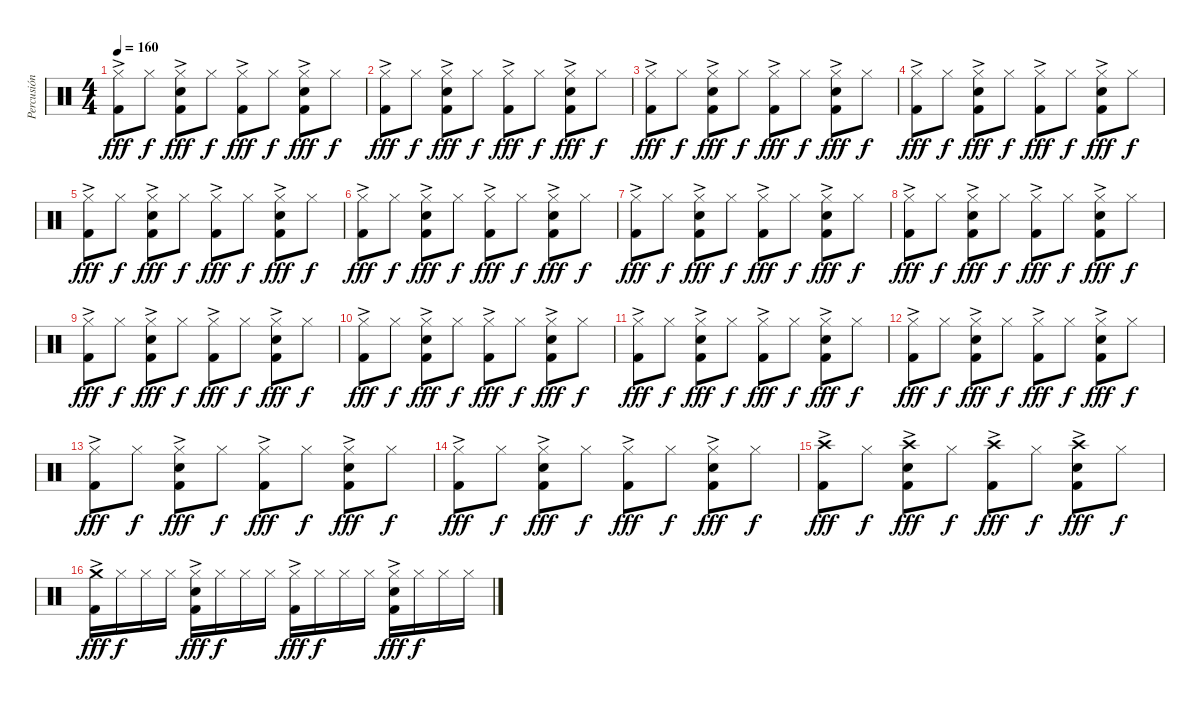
\track ("Percusión" "Percusión") {instrument percussion}
\staff {score}
\articulation defaults
\ts (4 4)
\tempo 160
\clef neutral
\ks c
("Hi-Hat (closed)" "Kick (hit) 2"{ac}).8{dy fff} "Hi-Hat (closed)".8{dy f} ("Hi-Hat (closed)" "Electric Snare (hit)" "Kick (hit) 2"{ac}).8{dy fff} "Hi-Hat (closed)".8{dy f} ("Hi-Hat (closed)" "Kick (hit) 2"{ac}).8{dy fff} "Hi-Hat (closed)".8{dy f} ("Hi-Hat (closed)" "Electric Snare (hit)" "Kick (hit) 2"{ac}).8{dy fff} "Hi-Hat (closed)".8{dy f} |
("Hi-Hat (closed)" "Kick (hit) 2"{ac}).8{dy fff} "Hi-Hat (closed)".8{dy f} ("Hi-Hat (closed)" "Electric Snare (hit)" "Kick (hit) 2"{ac}).8{dy fff} "Hi-Hat (closed)".8{dy f} ("Hi-Hat (closed)" "Kick (hit) 2"{ac}).8{dy fff} "Hi-Hat (closed)".8{dy f} ("Hi-Hat (closed)" "Electric Snare (hit)" "Kick (hit) 2"{ac}).8{dy fff} "Hi-Hat (closed)".8{dy f} |
("Hi-Hat (closed)" "Kick (hit) 2"{ac}).8{dy fff} "Hi-Hat (closed)".8{dy f} ("Hi-Hat (closed)" "Electric Snare (hit)" "Kick (hit) 2"{ac}).8{dy fff} "Hi-Hat (closed)".8{dy f} ("Hi-Hat (closed)" "Kick (hit) 2"{ac}).8{dy fff} "Hi-Hat (closed)".8{dy f} ("Hi-Hat (closed)" "Electric Snare (hit)" "Kick (hit) 2"{ac}).8{dy fff} "Hi-Hat (closed)".8{dy f} |
("Hi-Hat (closed)" "Kick (hit) 2"{ac}).8{dy fff} "Hi-Hat (closed)".8{dy f} ("Hi-Hat (closed)" "Electric Snare (hit)" "Kick (hit) 2"{ac}).8{dy fff} "Hi-Hat (closed)".8{dy f} ("Hi-Hat (closed)" "Kick (hit) 2"{ac}).8{dy fff} "Hi-Hat (closed)".8{dy f} ("Hi-Hat (closed)" "Electric Snare (hit)" "Kick (hit) 2"{ac}).8{dy fff} "Hi-Hat (closed)".8{dy f} |
("Hi-Hat (closed)" "Kick (hit) 2"{ac}).8{dy fff} "Hi-Hat (closed)".8{dy f} ("Hi-Hat (closed)" "Electric Snare (hit)" "Kick (hit) 2"{ac}).8{dy fff} "Hi-Hat (closed)".8{dy f} ("Hi-Hat (closed)" "Kick (hit) 2"{ac}).8{dy fff} "Hi-Hat (closed)".8{dy f} ("Hi-Hat (closed)" "Electric Snare (hit)" "Kick (hit) 2"{ac}).8{dy fff} "Hi-Hat (closed)".8{dy f} |
("Hi-Hat (closed)" "Kick (hit) 2"{ac}).8{dy fff} "Hi-Hat (closed)".8{dy f} ("Hi-Hat (closed)" "Electric Snare (hit)" "Kick (hit) 2"{ac}).8{dy fff} "Hi-Hat (closed)".8{dy f} ("Hi-Hat (closed)" "Kick (hit) 2"{ac}).8{dy fff} "Hi-Hat (closed)".8{dy f} ("Hi-Hat (closed)" "Electric Snare (hit)" "Kick (hit) 2"{ac}).8{dy fff} "Hi-Hat (closed)".8{dy f} |
("Hi-Hat (closed)" "Kick (hit) 2"{ac}).8{dy fff} "Hi-Hat (closed)".8{dy f} ("Hi-Hat (closed)" "Electric Snare (hit)" "Kick (hit) 2"{ac}).8{dy fff} "Hi-Hat (closed)".8{dy f} ("Hi-Hat (closed)" "Kick (hit) 2"{ac}).8{dy fff} "Hi-Hat (closed)".8{dy f} ("Hi-Hat (closed)" "Electric Snare (hit)" "Kick (hit) 2"{ac}).8{dy fff} "Hi-Hat (closed)".8{dy f} |
("Hi-Hat (closed)" "Kick (hit) 2"{ac}).8{dy fff} "Hi-Hat (closed)".8{dy f} ("Hi-Hat (closed)" "Electric Snare (hit)" "Kick (hit) 2"{ac}).8{dy fff} "Hi-Hat (closed)".8{dy f} ("Hi-Hat (closed)" "Kick (hit) 2"{ac}).8{dy fff} "Hi-Hat (closed)".8{dy f} ("Hi-Hat (closed)" "Electric Snare (hit)" "Kick (hit) 2"{ac}).8{dy fff} "Hi-Hat (closed)".8{dy f} |
("Hi-Hat (closed)" "Kick (hit) 2"{ac}).8{dy fff} "Hi-Hat (closed)".8{dy f} ("Hi-Hat (closed)" "Electric Snare (hit)" "Kick (hit) 2"{ac}).8{dy fff} "Hi-Hat (closed)".8{dy f} ("Hi-Hat (closed)" "Kick (hit) 2"{ac}).8{dy fff} "Hi-Hat (closed)".8{dy f} ("Hi-Hat (closed)" "Electric Snare (hit)" "Kick (hit) 2"{ac}).8{dy fff} "Hi-Hat (closed)".8{dy f} |
("Hi-Hat (closed)" "Kick (hit) 2"{ac}).8{dy fff} "Hi-Hat (closed)".8{dy f} ("Hi-Hat (closed)" "Electric Snare (hit)" "Kick (hit) 2"{ac}).8{dy fff} "Hi-Hat (closed)".8{dy f} ("Hi-Hat (closed)" "Kick (hit) 2"{ac}).8{dy fff} "Hi-Hat (closed)".8{dy f} ("Hi-Hat (closed)" "Electric Snare (hit)" "Kick (hit) 2"{ac}).8{dy fff} "Hi-Hat (closed)".8{dy f} |
("Hi-Hat (closed)" "Kick (hit) 2"{ac}).8{dy fff} "Hi-Hat (closed)".8{dy f} ("Hi-Hat (closed)" "Electric Snare (hit)" "Kick (hit) 2"{ac}).8{dy fff} "Hi-Hat (closed)".8{dy f} ("Hi-Hat (closed)" "Kick (hit) 2"{ac}).8{dy fff} "Hi-Hat (closed)".8{dy f} ("Hi-Hat (closed)" "Electric Snare (hit)" "Kick (hit) 2"{ac}).8{dy fff} "Hi-Hat (closed)".8{dy f} |
("Hi-Hat (closed)" "Kick (hit) 2"{ac}).8{dy fff} "Hi-Hat (closed)".8{dy f} ("Hi-Hat (closed)" "Electric Snare (hit)" "Kick (hit) 2"{ac}).8{dy fff} "Hi-Hat (closed)".8{dy f} ("Hi-Hat (closed)" "Kick (hit) 2"{ac}).8{dy fff} "Hi-Hat (closed)".8{dy f} ("Hi-Hat (closed)" "Electric Snare (hit)" "Kick (hit) 2"{ac}).8{dy fff} "Hi-Hat (closed)".8{dy f} |
("Hi-Hat (closed)" "Kick (hit) 2"{ac}).8{dy fff} "Hi-Hat (closed)".8{dy f} ("Hi-Hat (closed)" "Electric Snare (hit)" "Kick (hit) 2"{ac}).8{dy fff} "Hi-Hat (closed)".8{dy f} ("Hi-Hat (closed)" "Kick (hit) 2"{ac}).8{dy fff} "Hi-Hat (closed)".8{dy f} ("Hi-Hat (closed)" "Electric Snare (hit)" "Kick (hit) 2"{ac}).8{dy fff} "Hi-Hat (closed)".8{dy f} |
("Hi-Hat (closed)" "Kick (hit) 2"{ac}).8{dy fff} "Hi-Hat (closed)".8{dy f} ("Hi-Hat (closed)" "Electric Snare (hit)" "Kick (hit) 2"{ac}).8{dy fff} "Hi-Hat (closed)".8{dy f} ("Hi-Hat (closed)" "Kick (hit) 2"{ac}).8{dy fff} "Hi-Hat (closed)".8{dy f} ("Hi-Hat (closed)" "Electric Snare (hit)" "Kick (hit) 2"{ac}).8{dy fff} "Hi-Hat (closed)".8{dy f} |
("Crash high (hit)" "Kick (hit) 2"{ac}).8{dy fff} "Hi-Hat (closed)".8{dy f} ("Crash high (hit)" "Electric Snare (hit)" "Kick (hit) 2"{ac}).8{dy fff} "Hi-Hat (closed)".8{dy f} ("Crash high (hit)" "Kick (hit) 2"{ac}).8{dy fff} "Hi-Hat (closed)".8{dy f} ("Crash high (hit)" "Electric Snare (hit)" "Kick (hit) 2"{ac}).8{dy fff} "Hi-Hat (closed)".8{dy f} |
("Crash medium (hit)" "Kick (hit) 2"{ac}).16{dy fff} "Hi-Hat (closed)".16{dy f} "Hi-Hat (closed)".16 "Hi-Hat (closed)".16 ("Hi-Hat (closed)"{ac} "Electric Snare (hit)" "Kick (hit) 2").16{dy fff} "Hi-Hat (closed)".16{dy f} "Hi-Hat (closed)".16 "Hi-Hat (closed)".16 ("Hi-Hat (closed)"{ac} "Kick (hit) 2"{ac}).16{dy fff} "Hi-Hat (closed)".16{dy f} "Hi-Hat (closed)".16 "Hi-Hat (closed)".16 ("Hi-Hat (closed)"{ac} "Electric Snare (hit)" "Kick (hit) 2").16{dy fff} "Hi-Hat (closed)".16{dy f} "Hi-Hat (closed)".16 "Hi-Hat (closed)".16
